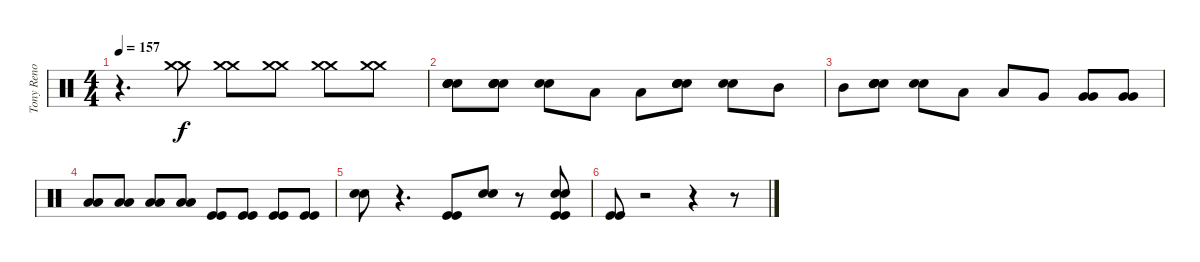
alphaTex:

\track ("Tony Reno ( 1984 < Ian Haughland )" "Tony Reno ") {instrument percussion}
\staff {score}
\articulation defaults
\ts (4 4)
\tempo 157
\clef neutral
\ks c
r.4{d dy f} ("Crash medium (hit)" "Crash medium (hit)").8 ("Crash medium (hit)" "Crash medium (hit)").8 ("Crash medium (hit)" "Crash medium (hit)").8 ("Crash medium (hit)" "Crash medium (hit)").8 ("Crash medium (hit)" "Crash medium (hit)").8 |
("Electric Snare (hit)" "Electric Snare (hit)" "Electric Snare (hit)" "Electric Snare (hit)").8 ("Electric Snare (hit)" "Electric Snare (hit)" "Electric Snare (hit)" "Electric Snare (hit)").8 ("Electric Snare (hit)" "Electric Snare (hit)").8 "Low Tom (hit)".8 "Low Tom (hit)".8 ("Electric Snare (hit)" "Electric Snare (hit)" "Electric Snare (hit)" "Electric Snare (hit)").8 ("Electric Snare (hit)" "Electric Snare (hit)").8 "Mid Tom (hit)".8 |
"Mid Tom (hit)".8 ("Electric Snare (hit)" "Electric Snare (hit)" "Electric Snare (hit)" "Electric Snare (hit)").8 ("Electric Snare (hit)" "Electric Snare (hit)").8 "Low Tom (hit)".8 "Low Tom (hit)".8 "Very Low Tom (hit)".8 ("Very Low Tom (hit)" "Very Low Tom (hit)").8 ("Very Low Tom (hit)" "Very Low Tom (hit)").8 |
("Low Floor Tom (hit)" "Low Floor Tom (hit)").8 ("Low Floor Tom (hit)" "Low Floor Tom (hit)").8 ("Low Floor Tom (hit)" "Low Floor Tom (hit)").8 ("Low Floor Tom (hit)" "Low Floor Tom (hit)").8 ("Kick (hit)" "Kick (hit)").8 ("Kick (hit)" "Kick (hit)").8 ("Kick (hit)" "Kick (hit)").8 ("Kick (hit)" "Kick (hit)").8 |
("Electric Snare (hit)" "Electric Snare (hit)").8 r.4{d} ("Kick (hit)" "Kick (hit)").8 ("Electric Snare (hit)" "Electric Snare (hit)").8 r.8 ("Electric Snare (hit)" "Electric Snare (hit)" "Kick (hit)" "Kick (hit)").8 |
("Kick (hit)" "Kick (hit)").8 r.2 r.4 r.8
